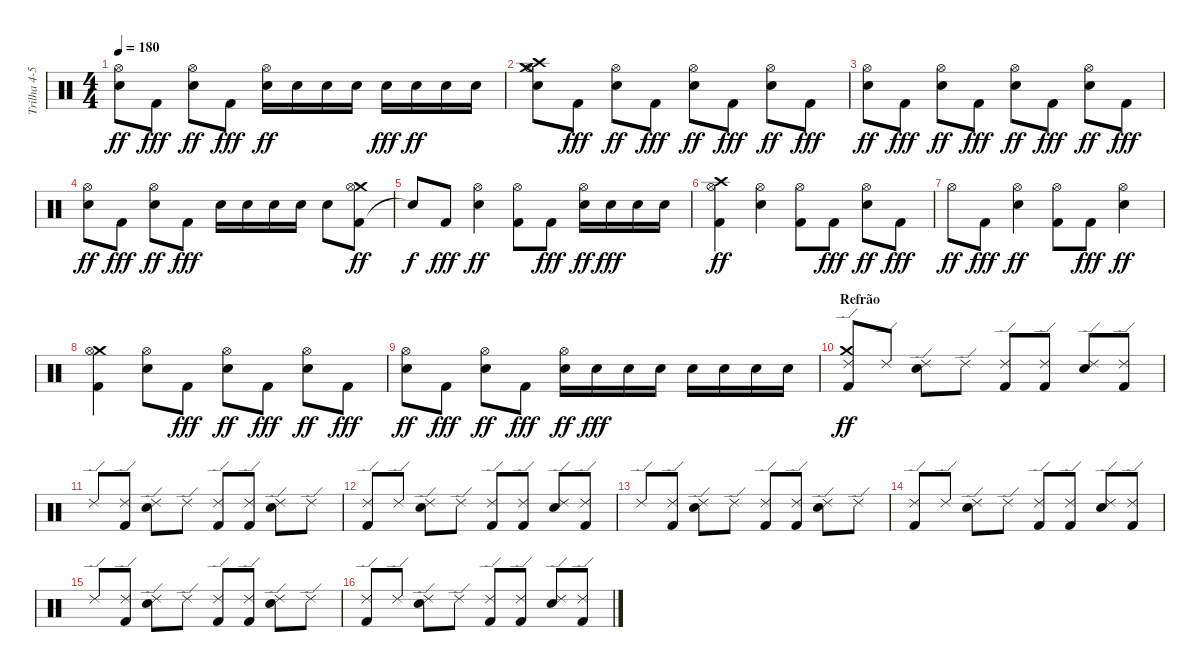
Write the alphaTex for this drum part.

\track ("Trilha 4-5" "Trilha 4-5") {instrument percussion}
\staff {score}
\articulation defaults
\ts (4 4)
\tempo 180
\clef neutral
\ks c
("Snare (hit) 2" "Hi-Hat (open)").8{dy ff} "Kick (hit) 2".8{dy fff} ("Snare (hit) 2" "Hi-Hat (open)").8{dy ff} "Kick (hit) 2".8{dy fff} ("Snare (hit) 2" "Hi-Hat (open)").16{dy ff} "Snare (hit) 2".16 "Snare (hit) 2".16 "Snare (hit) 2".16 "Snare (hit) 2".16{dy fff} "Snare (hit) 2".16{dy ff} "Snare (hit) 2".16 "Snare (hit) 2".16 |
("Snare (hit) 2" "Crash high (hit)" "Hi-Hat (open)" "Crash medium (hit)").8 "Kick (hit) 2".8{dy fff} ("Snare (hit) 2" "Hi-Hat (open)").8{dy ff} "Kick (hit) 2".8{dy fff} ("Snare (hit) 2" "Hi-Hat (open)").8{dy ff} "Kick (hit) 2".8{dy fff} ("Snare (hit) 2" "Hi-Hat (open)").8{dy ff} "Kick (hit) 2".8{dy fff} |
("Snare (hit) 2" "Hi-Hat (open)").8{dy ff} "Kick (hit) 2".8{dy fff} ("Snare (hit) 2" "Hi-Hat (open)").8{dy ff} "Kick (hit) 2".8{dy fff} ("Snare (hit) 2" "Hi-Hat (open)").8{dy ff} "Kick (hit) 2".8{dy fff} ("Snare (hit) 2" "Hi-Hat (open)").8{dy ff} "Kick (hit) 2".8{dy fff} |
("Snare (hit) 2" "Hi-Hat (open)").8{dy ff} "Kick (hit) 2".8{dy fff} ("Snare (hit) 2" "Hi-Hat (open)").8{dy ff} "Kick (hit) 2".8{dy fff} "Snare (hit) 2".16 "Snare (hit) 2".16 "Snare (hit) 2".16 "Snare (hit) 2".16 "Snare (hit) 2".8 ("Kick (hit) 2" "Crash medium (hit)" "Hi-Hat (open)").8{dy ff} |
"Snare (hit)"{t}.8{dy f} "Kick (hit) 2".8{dy fff} ("Snare (hit) 2" "Hi-Hat (open)").4{dy ff} ("Kick (hit) 2" "Hi-Hat (open)").8 "Kick (hit) 2".8{dy fff} ("Snare (hit) 2" "Hi-Hat (open)").16{dy ff} "Snare (hit) 2".16{dy fff} "Snare (hit) 2".16 "Snare (hit) 2".16 |
("Kick (hit) 2" "Crash high (hit)" "Hi-Hat (open)").4{dy ff} ("Snare (hit) 2" "Hi-Hat (open)").4 ("Kick (hit) 2" "Hi-Hat (open)").8 "Kick (hit) 2".8{dy fff} ("Snare (hit) 2" "Hi-Hat (open)").8{dy ff} "Kick (hit) 2".8{dy fff} |
"Hi-Hat (open)".8{dy ff} "Kick (hit) 2".8{dy fff} ("Snare (hit) 2" "Hi-Hat (open)").4{dy ff} ("Kick (hit) 2" "Hi-Hat (open)").8 "Kick (hit) 2".8{dy fff} ("Snare (hit) 2" "Hi-Hat (open)").4{dy ff} |
("Kick (hit) 2" "Crash medium (hit)" "Hi-Hat (open)").4 ("Snare (hit) 2" "Hi-Hat (open)").8 "Kick (hit) 2".8{dy fff} ("Snare (hit) 2" "Hi-Hat (open)").8{dy ff} "Kick (hit) 2".8{dy fff} ("Snare (hit) 2" "Hi-Hat (open)").8{dy ff} "Kick (hit) 2".8{dy fff} |
("Snare (hit) 2" "Hi-Hat (open)").8{dy ff} "Kick (hit) 2".8{dy fff} ("Snare (hit) 2" "Hi-Hat (open)").8{dy ff} "Kick (hit) 2".8{dy fff} ("Snare (hit) 2" "Hi-Hat (open)").16{dy ff} "Snare (hit) 2".16{dy fff} "Snare (hit) 2".16 "Snare (hit) 2".16 "Snare (hit) 2".16 "Snare (hit) 2".16 "Snare (hit) 2".16 "Snare (hit) 2".16 |
\section ("" "Refrão")
("Kick (hit) 2" "Crash medium (hit)" "Ride (edge) 2").8{dy ff} "Ride (edge) 2".8 ("Snare (hit) 2" "Ride (edge) 2").8 "Ride (edge) 2".8 ("Kick (hit) 2" "Ride (edge) 2").8 ("Kick (hit) 2" "Ride (edge) 2").8 ("Snare (hit) 2" "Ride (edge) 2").8 ("Kick (hit) 2" "Ride (edge) 2").8 |
"Ride (edge) 2".8 ("Kick (hit) 2" "Ride (edge) 2").8 ("Snare (hit) 2" "Ride (edge) 2").8 "Ride (edge) 2".8 ("Kick (hit) 2" "Ride (edge) 2").8 ("Kick (hit) 2" "Ride (edge) 2").8 ("Snare (hit) 2" "Ride (edge) 2").8 "Ride (edge) 2".8 |
("Kick (hit) 2" "Ride (edge) 2").8 "Ride (edge) 2".8 ("Snare (hit) 2" "Ride (edge) 2").8 "Ride (edge) 2".8 ("Kick (hit) 2" "Ride (edge) 2").8 ("Kick (hit) 2" "Ride (edge) 2").8 ("Snare (hit) 2" "Ride (edge) 2").8 ("Kick (hit) 2" "Ride (edge) 2").8 |
"Ride (edge) 2".8 ("Kick (hit) 2" "Ride (edge) 2").8 ("Snare (hit) 2" "Ride (edge) 2").8 "Ride (edge) 2".8 ("Kick (hit) 2" "Ride (edge) 2").8 ("Kick (hit) 2" "Ride (edge) 2").8 ("Snare (hit) 2" "Ride (edge) 2").8 "Ride (edge) 2".8 |
("Kick (hit) 2" "Ride (edge) 2").8 "Ride (edge) 2".8 ("Snare (hit) 2" "Ride (edge) 2").8 "Ride (edge) 2".8 ("Kick (hit) 2" "Ride (edge) 2").8 ("Kick (hit) 2" "Ride (edge) 2").8 ("Snare (hit) 2" "Ride (edge) 2").8 ("Kick (hit) 2" "Ride (edge) 2").8 |
"Ride (edge) 2".8 ("Kick (hit) 2" "Ride (edge) 2").8 ("Snare (hit) 2" "Ride (edge) 2").8 "Ride (edge) 2".8 ("Kick (hit) 2" "Ride (edge) 2").8 ("Kick (hit) 2" "Ride (edge) 2").8 ("Snare (hit) 2" "Ride (edge) 2").8 "Ride (edge) 2".8 |
("Kick (hit) 2" "Ride (edge) 2").8 "Ride (edge) 2".8 ("Snare (hit) 2" "Ride (edge) 2").8 "Ride (edge) 2".8 ("Kick (hit) 2" "Ride (edge) 2").8 ("Kick (hit) 2" "Ride (edge) 2").8 ("Snare (hit) 2" "Ride (edge) 2").8 ("Kick (hit) 2" "Ride (edge) 2").8
